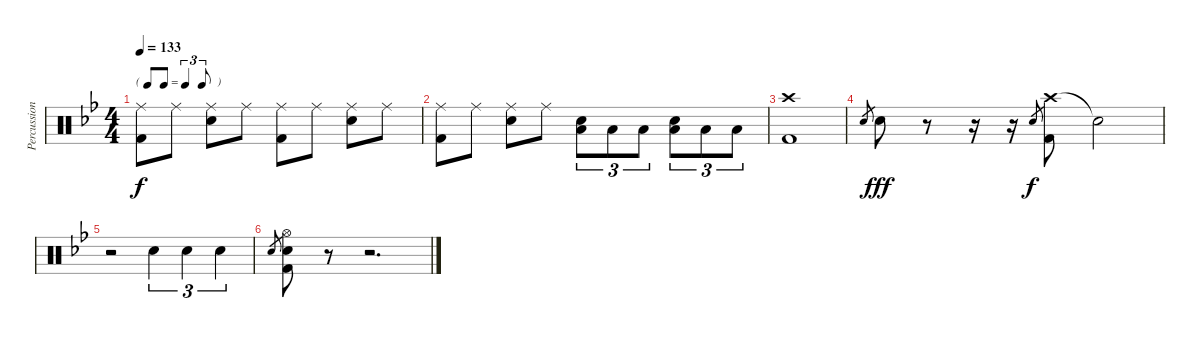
\track ("Percussion" "Percussion") {instrument percussion}
\staff {score}
\articulation defaults
\ts (4 4)
\tf triplet8th
\tempo 133
\clef neutral
\ks bb
("Ride (middle)" "Kick (hit) 2").8{dy f} "Ride (middle)".8 ("Ride (middle)" "Snare (hit) 2").8 "Ride (middle)".8 ("Ride (middle)" "Kick (hit) 2").8 "Ride (middle)".8 ("Ride (middle)" "Snare (hit) 2").8 "Ride (middle)".8 |
("Ride (middle)" "Kick (hit) 2").8 "Ride (middle)".8 ("Ride (middle)" "Snare (hit) 2").8 "Ride (middle)".8 ("Snare (hit) 2" "Low Floor Tom (hit)").8{tu (3 2)} "Low Floor Tom (hit)".8{tu (3 2)} "Low Floor Tom (hit)".8{tu (3 2)} ("Snare (hit) 2" "Low Floor Tom (hit)").8{tu (3 2)} "Low Floor Tom (hit)".8{tu (3 2)} "Low Floor Tom (hit)".8{tu (3 2)} |
("Crash high (hit)" "Kick (hit) 2").1 |
"Snare (hit) 2".8{gr} "Snare (hit) 2".8{dy fff} r.8 r.16 r.16 "Snare (hit) 2".8{gr dy f} ("Crash high (hit)" "Kick (hit) 2").8 "Snare (hit)"{t}.2 |
r.2 "Snare (hit) 2".4{tu (3 2)} "Snare (hit) 2".4{tu (3 2)} "Snare (hit) 2".4{tu (3 2)} |
"Snare (hit) 2".8{gr} ("Hi-Hat (open)" "Snare (hit) 2" "Kick (hit) 2").8 r.8 r.2{d}
